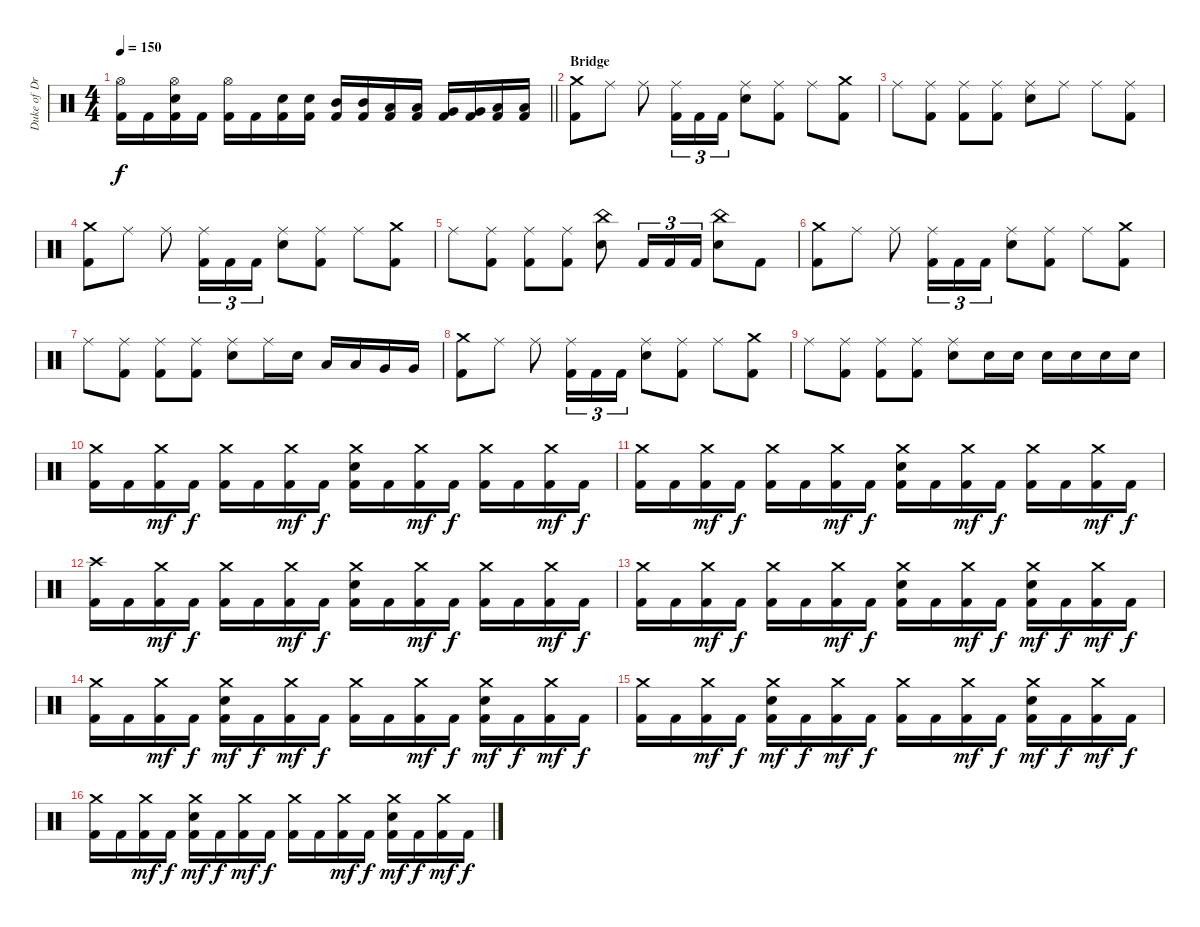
\track ("Duke of Drumington" "Duke of Dr") {instrument percussion}
\staff {score}
\articulation defaults
\ts (4 4)
\tempo 150
\clef neutral
\barLineRight lightlight
\ks c
("Hi-Hat (open)" "Kick (hit) 2").16{dy f} "Kick (hit) 2".16 ("Hi-Hat (open)" "Electric Snare (hit)" "Kick (hit) 2").16 "Kick (hit) 2".16 ("Hi-Hat (open)" "Kick (hit) 2").16 "Kick (hit) 2".16 ("Electric Snare (hit)" "Kick (hit) 2").16 ("Electric Snare (hit)" "Kick (hit) 2").16 ("Mid Tom (hit)" "Kick (hit) 2").16 ("Mid Tom (hit)" "Kick (hit) 2").16 ("Low Tom (hit)" "Kick (hit) 2").16 ("Low Tom (hit)" "Kick (hit) 2").16 ("Very Low Tom (hit)" "Kick (hit) 2").16 ("Very Low Tom (hit)" "Kick (hit) 2").16 ("Low Floor Tom (hit)" "Kick (hit) 2").16 ("Low Floor Tom (hit)" "Kick (hit) 2").16 |
\section ("" "Bridge")
("Crash medium (hit)" "Kick (hit) 2").8 "Ride (middle)".8 "Ride (middle)".8 ("Ride (middle)" "Kick (hit) 2").16{tu (3 2)} "Kick (hit) 2".16{tu (3 2)} "Kick (hit) 2".16{tu (3 2)} ("Ride (middle)" "Electric Snare (hit)").8 ("Ride (middle)" "Kick (hit) 2").8 "Ride (middle)".8 ("Crash medium (hit)" "Kick (hit) 2").8 |
"Ride (middle)".8 ("Ride (middle)" "Kick (hit) 2").8 ("Ride (middle)" "Kick (hit) 2").8 ("Ride (middle)" "Kick (hit) 2").8 ("Ride (middle)" "Electric Snare (hit)").8 "Ride (middle)".8 "Ride (middle)".8 ("Ride (middle)" "Kick (hit) 2").8 |
("Crash medium (hit)" "Kick (hit) 2").8 "Ride (middle)".8 "Ride (middle)".8 ("Ride (middle)" "Kick (hit) 2").16{tu (3 2)} "Kick (hit) 2".16{tu (3 2)} "Kick (hit) 2".16{tu (3 2)} ("Ride (middle)" "Electric Snare (hit)").8 ("Ride (middle)" "Kick (hit) 2").8 "Ride (middle)".8 ("Crash medium (hit)" "Kick (hit) 2").8 |
"Ride (middle)".8 ("Ride (middle)" "Kick (hit) 2").8 ("Ride (middle)" "Kick (hit) 2").8 ("Ride (middle)" "Kick (hit) 2").8 ("China (hit)" "Electric Snare (hit)").8 "Kick (hit) 2".16{tu (3 2)} "Kick (hit) 2".16{tu (3 2)} "Kick (hit) 2".16{tu (3 2)} ("China (hit)" "Electric Snare (hit)").8 "Kick (hit) 2".8 |
("Crash medium (hit)" "Kick (hit) 2").8 "Ride (middle)".8 "Ride (middle)".8 ("Ride (middle)" "Kick (hit) 2").16{tu (3 2)} "Kick (hit) 2".16{tu (3 2)} "Kick (hit) 2".16{tu (3 2)} ("Ride (middle)" "Electric Snare (hit)").8 ("Ride (middle)" "Kick (hit) 2").8 "Ride (middle)".8 ("Crash medium (hit)" "Kick (hit) 2").8 |
"Ride (middle)".8 ("Ride (middle)" "Kick (hit) 2").8 ("Ride (middle)" "Kick (hit) 2").8 ("Ride (middle)" "Kick (hit) 2").8 ("Ride (middle)" "Electric Snare (hit)").8 "Ride (middle)".16 "Electric Snare (hit)".16 "Low Tom (hit)".16 "Low Tom (hit)".16 "Very Low Tom (hit)".16 "Very Low Tom (hit)".16 |
("Crash medium (hit)" "Kick (hit) 2").8 "Ride (middle)".8 "Ride (middle)".8 ("Ride (middle)" "Kick (hit) 2").16{tu (3 2)} "Kick (hit) 2".16{tu (3 2)} "Kick (hit) 2".16{tu (3 2)} ("Ride (middle)" "Electric Snare (hit)").8 ("Ride (middle)" "Kick (hit) 2").8 "Ride (middle)".8 ("Crash medium (hit)" "Kick (hit) 2").8 |
"Ride (middle)".8 ("Ride (middle)" "Kick (hit) 2").8 ("Ride (middle)" "Kick (hit) 2").8 ("Ride (middle)" "Kick (hit) 2").8 ("Ride (middle)" "Electric Snare (hit)").8 "Electric Snare (hit)".16 "Electric Snare (hit)".16 "Electric Snare (hit)".16 "Electric Snare (hit)".16 "Electric Snare (hit)".16 "Electric Snare (hit)".16 |
("Crash medium (hit)" "Kick (hit) 2").16 "Kick (hit) 2".16 ("Crash medium (hit)" "Kick (hit) 2").16{dy mf} "Kick (hit) 2".16{dy f} ("Crash medium (hit)" "Kick (hit) 2").16 "Kick (hit) 2".16 ("Crash medium (hit)" "Kick (hit) 2").16{dy mf} "Kick (hit) 2".16{dy f} ("Crash medium (hit)" "Electric Snare (hit)" "Kick (hit) 2").16 "Kick (hit) 2".16 ("Crash medium (hit)" "Kick (hit) 2").16{dy mf} "Kick (hit) 2".16{dy f} ("Crash medium (hit)" "Kick (hit) 2").16 "Kick (hit) 2".16 ("Crash medium (hit)" "Kick (hit) 2").16{dy mf} "Kick (hit) 2".16{dy f} |
("Crash medium (hit)" "Kick (hit) 2").16 "Kick (hit) 2".16 ("Crash medium (hit)" "Kick (hit) 2").16{dy mf} "Kick (hit) 2".16{dy f} ("Crash medium (hit)" "Kick (hit) 2").16 "Kick (hit) 2".16 ("Crash medium (hit)" "Kick (hit) 2").16{dy mf} "Kick (hit) 2".16{dy f} ("Crash medium (hit)" "Electric Snare (hit)" "Kick (hit) 2").16 "Kick (hit) 2".16 ("Crash medium (hit)" "Kick (hit) 2").16{dy mf} "Kick (hit) 2".16{dy f} ("Crash medium (hit)" "Kick (hit) 2").16 "Kick (hit) 2".16 ("Crash medium (hit)" "Kick (hit) 2").16{dy mf} "Kick (hit) 2".16{dy f} |
("Crash high (hit)" "Kick (hit) 2").16 "Kick (hit) 2".16 ("Crash medium (hit)" "Kick (hit) 2").16{dy mf} "Kick (hit) 2".16{dy f} ("Crash medium (hit)" "Kick (hit) 2").16 "Kick (hit) 2".16 ("Crash medium (hit)" "Kick (hit) 2").16{dy mf} "Kick (hit) 2".16{dy f} ("Crash medium (hit)" "Electric Snare (hit)" "Kick (hit) 2").16 "Kick (hit) 2".16 ("Crash medium (hit)" "Kick (hit) 2").16{dy mf} "Kick (hit) 2".16{dy f} ("Crash medium (hit)" "Kick (hit) 2").16 "Kick (hit) 2".16 ("Crash medium (hit)" "Kick (hit) 2").16{dy mf} "Kick (hit) 2".16{dy f} |
("Crash medium (hit)" "Kick (hit) 2").16 "Kick (hit) 2".16 ("Crash medium (hit)" "Kick (hit) 2").16{dy mf} "Kick (hit) 2".16{dy f} ("Crash medium (hit)" "Kick (hit) 2").16 "Kick (hit) 2".16 ("Crash medium (hit)" "Kick (hit) 2").16{dy mf} "Kick (hit) 2".16{dy f} ("Crash medium (hit)" "Electric Snare (hit)" "Kick (hit) 2").16 "Kick (hit) 2".16 ("Crash medium (hit)" "Kick (hit) 2").16{dy mf} "Kick (hit) 2".16{dy f} ("Crash medium (hit)" "Electric Snare (hit)" "Kick (hit) 2").16{dy mf} "Kick (hit) 2".16{dy f} ("Crash medium (hit)" "Kick (hit) 2").16{dy mf} "Kick (hit) 2".16{dy f} |
("Crash medium (hit)" "Kick (hit) 2").16 "Kick (hit) 2".16 ("Crash medium (hit)" "Kick (hit) 2").16{dy mf} "Kick (hit) 2".16{dy f} ("Crash medium (hit)" "Electric Snare (hit)" "Kick (hit) 2").16{dy mf} "Kick (hit) 2".16{dy f} ("Crash medium (hit)" "Kick (hit) 2").16{dy mf} "Kick (hit) 2".16{dy f} ("Crash medium (hit)" "Kick (hit) 2").16 "Kick (hit) 2".16 ("Crash medium (hit)" "Kick (hit) 2").16{dy mf} "Kick (hit) 2".16{dy f} ("Crash medium (hit)" "Electric Snare (hit)" "Kick (hit) 2").16{dy mf} "Kick (hit) 2".16{dy f} ("Crash medium (hit)" "Kick (hit) 2").16{dy mf} "Kick (hit) 2".16{dy f} |
("Crash medium (hit)" "Kick (hit) 2").16 "Kick (hit) 2".16 ("Crash medium (hit)" "Kick (hit) 2").16{dy mf} "Kick (hit) 2".16{dy f} ("Crash medium (hit)" "Electric Snare (hit)" "Kick (hit) 2").16{dy mf} "Kick (hit) 2".16{dy f} ("Crash medium (hit)" "Kick (hit) 2").16{dy mf} "Kick (hit) 2".16{dy f} ("Crash medium (hit)" "Kick (hit) 2").16 "Kick (hit) 2".16 ("Crash medium (hit)" "Kick (hit) 2").16{dy mf} "Kick (hit) 2".16{dy f} ("Crash medium (hit)" "Electric Snare (hit)" "Kick (hit) 2").16{dy mf} "Kick (hit) 2".16{dy f} ("Crash medium (hit)" "Kick (hit) 2").16{dy mf} "Kick (hit) 2".16{dy f} |
("Crash medium (hit)" "Kick (hit) 2").16 "Kick (hit) 2".16 ("Crash medium (hit)" "Kick (hit) 2").16{dy mf} "Kick (hit) 2".16{dy f} ("Crash medium (hit)" "Electric Snare (hit)" "Kick (hit) 2").16{dy mf} "Kick (hit) 2".16{dy f} ("Crash medium (hit)" "Kick (hit) 2").16{dy mf} "Kick (hit) 2".16{dy f} ("Crash medium (hit)" "Kick (hit) 2").16 "Kick (hit) 2".16 ("Crash medium (hit)" "Kick (hit) 2").16{dy mf} "Kick (hit) 2".16{dy f} ("Crash medium (hit)" "Electric Snare (hit)" "Kick (hit) 2").16{dy mf} "Kick (hit) 2".16{dy f} ("Crash medium (hit)" "Kick (hit) 2").16{dy mf} "Kick (hit) 2".16{dy f}
